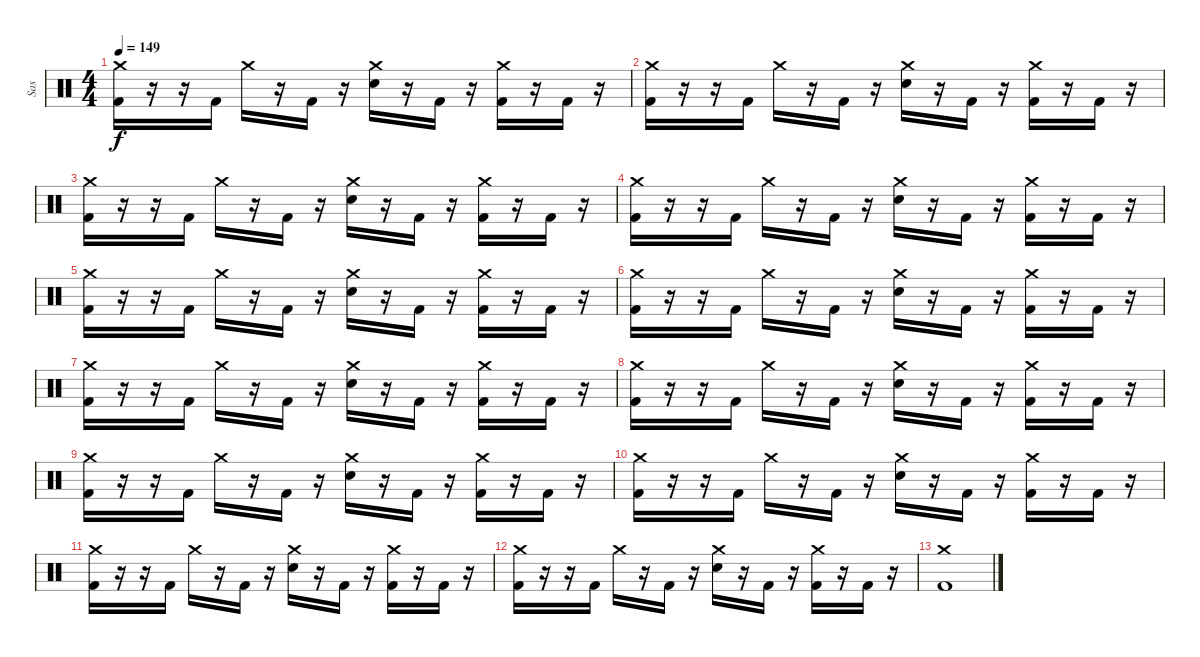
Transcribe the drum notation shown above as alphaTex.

\track ("Sas" "Sas") {instrument percussion}
\staff {score}
\articulation defaults
\ts (4 4)
\tempo 149
\clef neutral
\ks c
("Crash medium (hit)" "Kick (hit) 2").16{dy f} r.16 r.16 "Kick (hit) 2".16 "Crash medium (hit)".16 r.16 "Kick (hit) 2".16 r.16 ("Crash medium (hit)" "Snare (hit) 2").16 r.16 "Kick (hit) 2".16 r.16 ("Crash medium (hit)" "Kick (hit) 2").16 r.16 "Kick (hit) 2".16 r.16 |
("Crash medium (hit)" "Kick (hit) 2").16 r.16 r.16 "Kick (hit) 2".16 "Crash medium (hit)".16 r.16 "Kick (hit) 2".16 r.16 ("Crash medium (hit)" "Snare (hit) 2").16 r.16 "Kick (hit) 2".16 r.16 ("Crash medium (hit)" "Kick (hit) 2").16 r.16 "Kick (hit) 2".16 r.16 |
("Crash medium (hit)" "Kick (hit) 2").16 r.16 r.16 "Kick (hit) 2".16 "Crash medium (hit)".16 r.16 "Kick (hit) 2".16 r.16 ("Crash medium (hit)" "Snare (hit) 2").16 r.16 "Kick (hit) 2".16 r.16 ("Crash medium (hit)" "Kick (hit) 2").16 r.16 "Kick (hit) 2".16 r.16 |
("Crash medium (hit)" "Kick (hit) 2").16 r.16 r.16 "Kick (hit) 2".16 "Crash medium (hit)".16 r.16 "Kick (hit) 2".16 r.16 ("Crash medium (hit)" "Snare (hit) 2").16 r.16 "Kick (hit) 2".16 r.16 ("Crash medium (hit)" "Kick (hit) 2").16 r.16 "Kick (hit) 2".16 r.16 |
("Crash medium (hit)" "Kick (hit) 2").16 r.16 r.16 "Kick (hit) 2".16 "Crash medium (hit)".16 r.16 "Kick (hit) 2".16 r.16 ("Crash medium (hit)" "Snare (hit) 2").16 r.16 "Kick (hit) 2".16 r.16 ("Crash medium (hit)" "Kick (hit) 2").16 r.16 "Kick (hit) 2".16 r.16 |
("Crash medium (hit)" "Kick (hit) 2").16 r.16 r.16 "Kick (hit) 2".16 "Crash medium (hit)".16 r.16 "Kick (hit) 2".16 r.16 ("Crash medium (hit)" "Snare (hit) 2").16 r.16 "Kick (hit) 2".16 r.16 ("Crash medium (hit)" "Kick (hit) 2").16 r.16 "Kick (hit) 2".16 r.16 |
("Crash medium (hit)" "Kick (hit) 2").16 r.16 r.16 "Kick (hit) 2".16 "Crash medium (hit)".16 r.16 "Kick (hit) 2".16 r.16 ("Crash medium (hit)" "Snare (hit) 2").16 r.16 "Kick (hit) 2".16 r.16 ("Crash medium (hit)" "Kick (hit) 2").16 r.16 "Kick (hit) 2".16 r.16 |
("Crash medium (hit)" "Kick (hit) 2").16 r.16 r.16 "Kick (hit) 2".16 "Crash medium (hit)".16 r.16 "Kick (hit) 2".16 r.16 ("Crash medium (hit)" "Snare (hit) 2").16 r.16 "Kick (hit) 2".16 r.16 ("Crash medium (hit)" "Kick (hit) 2").16 r.16 "Kick (hit) 2".16 r.16 |
("Crash medium (hit)" "Kick (hit) 2").16 r.16 r.16 "Kick (hit) 2".16 "Crash medium (hit)".16 r.16 "Kick (hit) 2".16 r.16 ("Crash medium (hit)" "Snare (hit) 2").16 r.16 "Kick (hit) 2".16 r.16 ("Crash medium (hit)" "Kick (hit) 2").16 r.16 "Kick (hit) 2".16 r.16 |
("Crash medium (hit)" "Kick (hit) 2").16 r.16 r.16 "Kick (hit) 2".16 "Crash medium (hit)".16 r.16 "Kick (hit) 2".16 r.16 ("Crash medium (hit)" "Snare (hit) 2").16 r.16 "Kick (hit) 2".16 r.16 ("Crash medium (hit)" "Kick (hit) 2").16 r.16 "Kick (hit) 2".16 r.16 |
("Crash medium (hit)" "Kick (hit) 2").16 r.16 r.16 "Kick (hit) 2".16 "Crash medium (hit)".16 r.16 "Kick (hit) 2".16 r.16 ("Crash medium (hit)" "Snare (hit) 2").16 r.16 "Kick (hit) 2".16 r.16 ("Crash medium (hit)" "Kick (hit) 2").16 r.16 "Kick (hit) 2".16 r.16 |
("Crash medium (hit)" "Kick (hit) 2").16 r.16 r.16 "Kick (hit) 2".16 "Crash medium (hit)".16 r.16 "Kick (hit) 2".16 r.16 ("Crash medium (hit)" "Snare (hit) 2").16 r.16 "Kick (hit) 2".16 r.16 ("Crash medium (hit)" "Kick (hit) 2").16 r.16 "Kick (hit) 2".16 r.16 |
("Crash medium (hit)" "Kick (hit) 2").1
